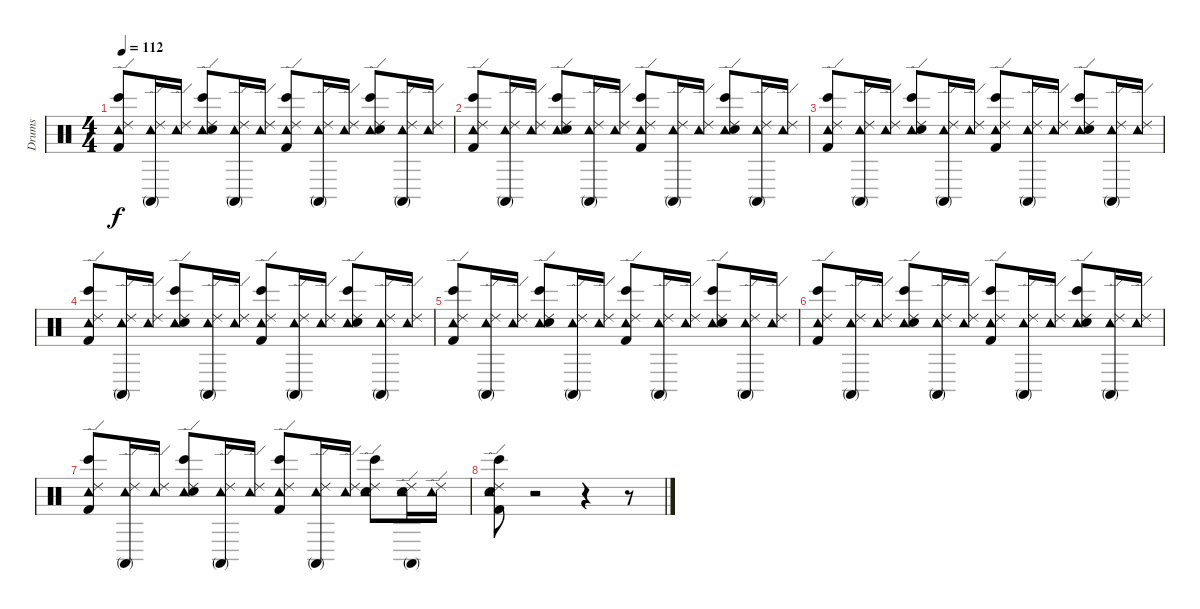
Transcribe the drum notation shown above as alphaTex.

\track ("Drums" "Drums") {instrument percussion}
\staff {score}
\articulation defaults
\ts (4 4)
\tempo 112
\clef neutral
\ks c
("Ride (edge) 2" "Tambourine (hit)" "Kick (hit) 2" "Bongo High (hit)").8{dy f} ("Ride (edge) 2" "Tambourine (hit)" "Conga high (mute)").16 ("Ride (edge) 2" "Tambourine (hit)").16 ("Ride (edge) 2" "Tambourine (hit)" "Snare (hit) 2" "Bongo High (hit)").8 ("Ride (edge) 2" "Tambourine (hit)" "Conga high (mute)").16 ("Ride (edge) 2" "Tambourine (hit)").16 ("Ride (edge) 2" "Tambourine (hit)" "Kick (hit) 2" "Bongo High (hit)").8 ("Ride (edge) 2" "Tambourine (hit)" "Conga high (mute)").16 ("Ride (edge) 2" "Tambourine (hit)").16 ("Ride (edge) 2" "Tambourine (hit)" "Snare (hit) 2" "Bongo High (hit)").8 ("Ride (edge) 2" "Tambourine (hit)" "Conga high (mute)").16 ("Ride (edge) 2" "Tambourine (hit)").16 |
("Ride (edge) 2" "Tambourine (hit)" "Kick (hit) 2" "Bongo High (hit)").8 ("Ride (edge) 2" "Tambourine (hit)" "Conga high (mute)").16 ("Ride (edge) 2" "Tambourine (hit)").16 ("Ride (edge) 2" "Tambourine (hit)" "Snare (hit) 2" "Bongo High (hit)").8 ("Ride (edge) 2" "Tambourine (hit)" "Conga high (mute)").16 ("Ride (edge) 2" "Tambourine (hit)").16 ("Ride (edge) 2" "Tambourine (hit)" "Kick (hit) 2" "Bongo High (hit)").8 ("Ride (edge) 2" "Tambourine (hit)" "Conga high (mute)").16 ("Ride (edge) 2" "Tambourine (hit)").16 ("Ride (edge) 2" "Tambourine (hit)" "Snare (hit) 2" "Bongo High (hit)").8 ("Ride (edge) 2" "Tambourine (hit)" "Conga high (mute)").16 ("Ride (edge) 2" "Tambourine (hit)").16 |
("Ride (edge) 2" "Tambourine (hit)" "Kick (hit) 2" "Bongo High (hit)").8 ("Ride (edge) 2" "Tambourine (hit)" "Conga high (mute)").16 ("Ride (edge) 2" "Tambourine (hit)").16 ("Ride (edge) 2" "Tambourine (hit)" "Snare (hit) 2" "Bongo High (hit)").8 ("Ride (edge) 2" "Tambourine (hit)" "Conga high (mute)").16 ("Ride (edge) 2" "Tambourine (hit)").16 ("Ride (edge) 2" "Tambourine (hit)" "Kick (hit) 2" "Bongo High (hit)").8 ("Ride (edge) 2" "Tambourine (hit)" "Conga high (mute)").16 ("Ride (edge) 2" "Tambourine (hit)").16 ("Ride (edge) 2" "Tambourine (hit)" "Snare (hit) 2" "Bongo High (hit)").8 ("Ride (edge) 2" "Tambourine (hit)" "Conga high (mute)").16 ("Ride (edge) 2" "Tambourine (hit)").16 |
("Ride (edge) 2" "Tambourine (hit)" "Kick (hit) 2" "Bongo High (hit)").8 ("Ride (edge) 2" "Tambourine (hit)" "Conga high (mute)").16 ("Ride (edge) 2" "Tambourine (hit)").16 ("Ride (edge) 2" "Tambourine (hit)" "Snare (hit) 2" "Bongo High (hit)").8 ("Ride (edge) 2" "Tambourine (hit)" "Conga high (mute)").16 ("Ride (edge) 2" "Tambourine (hit)").16 ("Ride (edge) 2" "Tambourine (hit)" "Kick (hit) 2" "Bongo High (hit)").8 ("Ride (edge) 2" "Tambourine (hit)" "Conga high (mute)").16 ("Ride (edge) 2" "Tambourine (hit)").16 ("Ride (edge) 2" "Tambourine (hit)" "Snare (hit) 2" "Bongo High (hit)").8 ("Ride (edge) 2" "Tambourine (hit)" "Conga high (mute)").16 ("Ride (edge) 2" "Tambourine (hit)").16 |
("Ride (edge) 2" "Tambourine (hit)" "Kick (hit) 2" "Bongo High (hit)").8 ("Ride (edge) 2" "Tambourine (hit)" "Conga high (mute)").16 ("Ride (edge) 2" "Tambourine (hit)").16 ("Ride (edge) 2" "Tambourine (hit)" "Snare (hit) 2" "Bongo High (hit)").8 ("Ride (edge) 2" "Tambourine (hit)" "Conga high (mute)").16 ("Ride (edge) 2" "Tambourine (hit)").16 ("Ride (edge) 2" "Tambourine (hit)" "Kick (hit) 2" "Bongo High (hit)").8 ("Ride (edge) 2" "Tambourine (hit)" "Conga high (mute)").16 ("Ride (edge) 2" "Tambourine (hit)").16 ("Ride (edge) 2" "Tambourine (hit)" "Snare (hit) 2" "Bongo High (hit)").8 ("Ride (edge) 2" "Tambourine (hit)" "Conga high (mute)").16 ("Ride (edge) 2" "Tambourine (hit)").16 |
("Ride (edge) 2" "Tambourine (hit)" "Kick (hit) 2" "Bongo High (hit)").8 ("Ride (edge) 2" "Tambourine (hit)" "Conga high (mute)").16 ("Ride (edge) 2" "Tambourine (hit)").16 ("Ride (edge) 2" "Tambourine (hit)" "Snare (hit) 2" "Bongo High (hit)").8 ("Ride (edge) 2" "Tambourine (hit)" "Conga high (mute)").16 ("Ride (edge) 2" "Tambourine (hit)").16 ("Ride (edge) 2" "Tambourine (hit)" "Kick (hit) 2" "Bongo High (hit)").8 ("Ride (edge) 2" "Tambourine (hit)" "Conga high (mute)").16 ("Ride (edge) 2" "Tambourine (hit)").16 ("Ride (edge) 2" "Tambourine (hit)" "Snare (hit) 2" "Bongo High (hit)").8 ("Ride (edge) 2" "Tambourine (hit)" "Conga high (mute)").16 ("Ride (edge) 2" "Tambourine (hit)").16 |
("Ride (edge) 2" "Tambourine (hit)" "Kick (hit) 2" "Bongo High (hit)").8 ("Ride (edge) 2" "Tambourine (hit)" "Conga high (mute)").16 ("Ride (edge) 2" "Tambourine (hit)").16 ("Ride (edge) 2" "Tambourine (hit)" "Snare (hit) 2" "Bongo High (hit)").8 ("Ride (edge) 2" "Tambourine (hit)" "Conga high (mute)").16 ("Ride (edge) 2" "Tambourine (hit)").16 ("Ride (edge) 2" "Tambourine (hit)" "Kick (hit) 2" "Bongo High (hit)").8 ("Ride (edge) 2" "Tambourine (hit)" "Conga high (mute)").16 ("Ride (edge) 2" "Tambourine (hit)").16 ("Ride (edge) 2" "Tambourine (hit)" "Snare (hit) 2" "Bongo High (hit)").8 ("Snare (hit) 2" "Ride (edge) 2" "Tambourine (hit)" "Conga high (mute)").16 ("Ride (edge) 2" "Tambourine (hit)").16 |
("Snare (hit) 2" "Ride (edge) 2" "Tambourine (hit)" "Kick (hit) 2" "Bongo High (hit)").8 r.2 r.4 r.8
